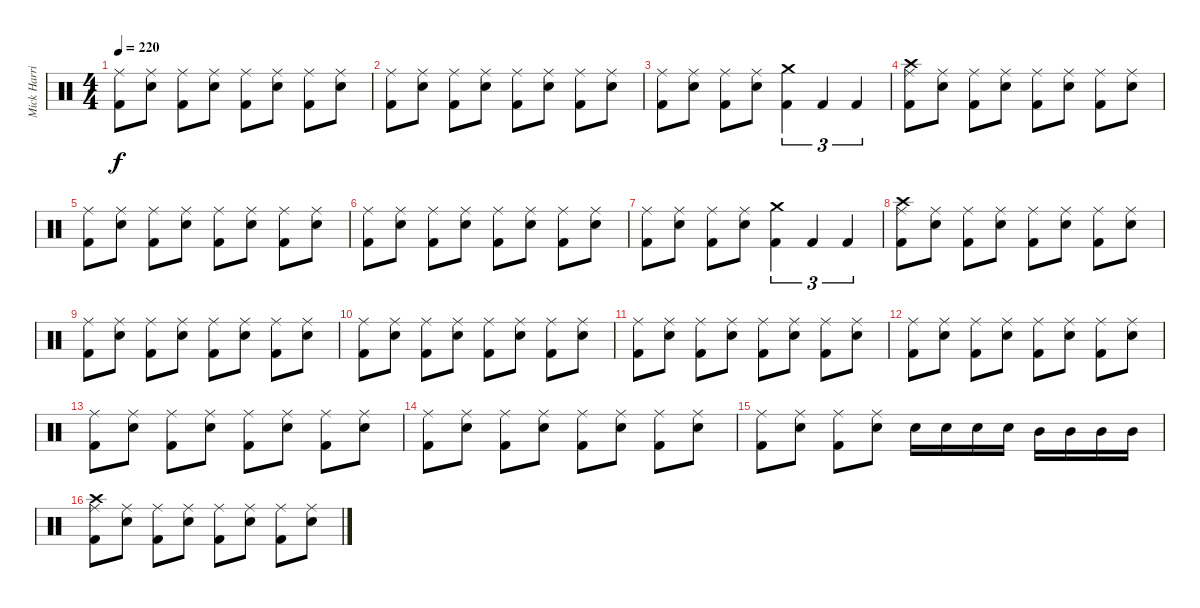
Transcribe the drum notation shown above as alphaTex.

\track ("Mick Harris (Drums)" "Mick Harri") {instrument percussion}
\staff {score}
\articulation defaults
\ts (4 4)
\tempo 220
\clef neutral
\ks c
("Kick (hit) 2" "Ride (middle)").8{dy f} ("Electric Snare (hit)" "Ride (middle)").8 ("Kick (hit) 2" "Ride (middle)").8 ("Electric Snare (hit)" "Ride (middle)").8 ("Kick (hit) 2" "Ride (middle)").8 ("Electric Snare (hit)" "Ride (middle)").8 ("Kick (hit) 2" "Ride (middle)").8 ("Electric Snare (hit)" "Ride (middle)").8 |
("Kick (hit) 2" "Ride (middle)").8 ("Electric Snare (hit)" "Ride (middle)").8 ("Kick (hit) 2" "Ride (middle)").8 ("Electric Snare (hit)" "Ride (middle)").8 ("Kick (hit) 2" "Ride (middle)").8 ("Electric Snare (hit)" "Ride (middle)").8 ("Kick (hit) 2" "Ride (middle)").8 ("Electric Snare (hit)" "Ride (middle)").8 |
("Kick (hit) 2" "Ride (middle)").8 ("Electric Snare (hit)" "Ride (middle)").8 ("Kick (hit) 2" "Ride (middle)").8 ("Electric Snare (hit)" "Ride (middle)").8 ("Kick (hit) 2" "Crash medium (hit)").4{tu (3 2)} "Kick (hit) 2".4{tu (3 2)} "Kick (hit) 2".4{tu (3 2)} |
("Kick (hit) 2" "Crash high (hit)" "Ride (middle)").8 ("Electric Snare (hit)" "Ride (middle)").8 ("Kick (hit) 2" "Ride (middle)").8 ("Electric Snare (hit)" "Ride (middle)").8 ("Kick (hit) 2" "Ride (middle)").8 ("Electric Snare (hit)" "Ride (middle)").8 ("Kick (hit) 2" "Ride (middle)").8 ("Electric Snare (hit)" "Ride (middle)").8 |
("Kick (hit) 2" "Ride (middle)").8 ("Electric Snare (hit)" "Ride (middle)").8 ("Kick (hit) 2" "Ride (middle)").8 ("Electric Snare (hit)" "Ride (middle)").8 ("Kick (hit) 2" "Ride (middle)").8 ("Electric Snare (hit)" "Ride (middle)").8 ("Kick (hit) 2" "Ride (middle)").8 ("Electric Snare (hit)" "Ride (middle)").8 |
("Kick (hit) 2" "Ride (middle)").8 ("Electric Snare (hit)" "Ride (middle)").8 ("Kick (hit) 2" "Ride (middle)").8 ("Electric Snare (hit)" "Ride (middle)").8 ("Kick (hit) 2" "Ride (middle)").8 ("Electric Snare (hit)" "Ride (middle)").8 ("Kick (hit) 2" "Ride (middle)").8 ("Electric Snare (hit)" "Ride (middle)").8 |
("Kick (hit) 2" "Ride (middle)").8 ("Electric Snare (hit)" "Ride (middle)").8 ("Kick (hit) 2" "Ride (middle)").8 ("Electric Snare (hit)" "Ride (middle)").8 ("Kick (hit) 2" "Crash medium (hit)").4{tu (3 2)} "Kick (hit) 2".4{tu (3 2)} "Kick (hit) 2".4{tu (3 2)} |
("Kick (hit) 2" "Crash high (hit)" "Ride (middle)").8 ("Electric Snare (hit)" "Ride (middle)").8 ("Kick (hit) 2" "Ride (middle)").8 ("Electric Snare (hit)" "Ride (middle)").8 ("Kick (hit) 2" "Ride (middle)").8 ("Electric Snare (hit)" "Ride (middle)").8 ("Kick (hit) 2" "Ride (middle)").8 ("Electric Snare (hit)" "Ride (middle)").8 |
("Kick (hit) 2" "Ride (middle)").8 ("Electric Snare (hit)" "Ride (middle)").8 ("Kick (hit) 2" "Ride (middle)").8 ("Electric Snare (hit)" "Ride (middle)").8 ("Kick (hit) 2" "Ride (middle)").8 ("Electric Snare (hit)" "Ride (middle)").8 ("Kick (hit) 2" "Ride (middle)").8 ("Electric Snare (hit)" "Ride (middle)").8 |
("Kick (hit) 2" "Ride (middle)").8 ("Electric Snare (hit)" "Ride (middle)").8 ("Kick (hit) 2" "Ride (middle)").8 ("Electric Snare (hit)" "Ride (middle)").8 ("Kick (hit) 2" "Ride (middle)").8 ("Electric Snare (hit)" "Ride (middle)").8 ("Kick (hit) 2" "Ride (middle)").8 ("Electric Snare (hit)" "Ride (middle)").8 |
("Kick (hit) 2" "Ride (middle)").8 ("Electric Snare (hit)" "Ride (middle)").8 ("Kick (hit) 2" "Ride (middle)").8 ("Electric Snare (hit)" "Ride (middle)").8 ("Kick (hit) 2" "Ride (middle)").8 ("Electric Snare (hit)" "Ride (middle)").8 ("Kick (hit) 2" "Ride (middle)").8 ("Electric Snare (hit)" "Ride (middle)").8 |
("Kick (hit) 2" "Ride (middle)").8 ("Electric Snare (hit)" "Ride (middle)").8 ("Kick (hit) 2" "Ride (middle)").8 ("Electric Snare (hit)" "Ride (middle)").8 ("Kick (hit) 2" "Ride (middle)").8 ("Electric Snare (hit)" "Ride (middle)").8 ("Kick (hit) 2" "Ride (middle)").8 ("Electric Snare (hit)" "Ride (middle)").8 |
("Kick (hit) 2" "Ride (middle)").8 ("Electric Snare (hit)" "Ride (middle)").8 ("Kick (hit) 2" "Ride (middle)").8 ("Electric Snare (hit)" "Ride (middle)").8 ("Kick (hit) 2" "Ride (middle)").8 ("Electric Snare (hit)" "Ride (middle)").8 ("Kick (hit) 2" "Ride (middle)").8 ("Electric Snare (hit)" "Ride (middle)").8 |
("Kick (hit) 2" "Ride (middle)").8 ("Electric Snare (hit)" "Ride (middle)").8 ("Kick (hit) 2" "Ride (middle)").8 ("Electric Snare (hit)" "Ride (middle)").8 ("Kick (hit) 2" "Ride (middle)").8 ("Electric Snare (hit)" "Ride (middle)").8 ("Kick (hit) 2" "Ride (middle)").8 ("Electric Snare (hit)" "Ride (middle)").8 |
("Kick (hit) 2" "Ride (middle)").8 ("Electric Snare (hit)" "Ride (middle)").8 ("Kick (hit) 2" "Ride (middle)").8 ("Electric Snare (hit)" "Ride (middle)").8 "Electric Snare (hit)".16 "Electric Snare (hit)".16 "Electric Snare (hit)".16 "Electric Snare (hit)".16 "Mid Tom (hit)".16 "Mid Tom (hit)".16 "Mid Tom (hit)".16 "Mid Tom (hit)".16 |
("Kick (hit) 2" "Crash high (hit)" "Ride (middle)").8 ("Electric Snare (hit)" "Ride (middle)").8 ("Kick (hit) 2" "Ride (middle)").8 ("Electric Snare (hit)" "Ride (middle)").8 ("Kick (hit) 2" "Ride (middle)").8 ("Electric Snare (hit)" "Ride (middle)").8 ("Kick (hit) 2" "Ride (middle)").8 ("Electric Snare (hit)" "Ride (middle)").8
